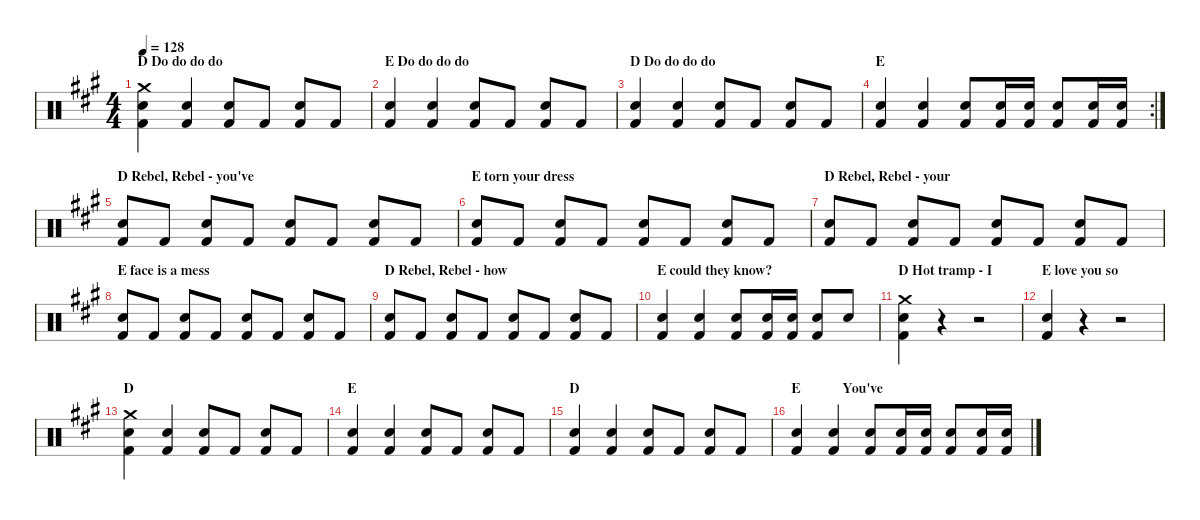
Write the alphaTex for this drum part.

\hideDynamics
\bracketExtendMode nobrackets
\singleTrackTrackNamePolicy hidden
\multiTrackTrackNamePolicy hidden
\firstSystemTrackNameMode fullname
\firstSystemTrackNameOrientation horizontal
\otherSystemsTrackNameOrientation horizontal
\track ("Drumkit" "Drums") {instrument percussion}
\staff {score}
\articulation defaults
\ts (4 4)
\section ("" "D Do do do do")
\tempo 128
\clef neutral
\ks a
("Crash medium (hit)"{acc forcenatural} "Snare (hit) 2"{acc forcenatural} "Kick (hit) 2"{acc forcenatural}).4{dy f beam Down} ("Snare (hit) 2"{acc forcenatural} "Kick (hit) 2"{acc forcenatural}).4{beam Up} ("Snare (hit) 2"{acc forcenatural} "Kick (hit) 2"{acc forcenatural}).8{beam Up} "Kick (hit) 2"{acc forcenatural}.8{beam Up} ("Snare (hit) 2"{acc forcenatural} "Kick (hit) 2"{acc forcenatural}).8{beam Up} "Kick (hit) 2"{acc forcenatural}.8{beam Up} |
\section ("" "E Do do do do")
("Snare (hit) 2"{acc forcenatural} "Kick (hit) 2"{acc forcenatural}).4{beam Up} ("Snare (hit) 2"{acc forcenatural} "Kick (hit) 2"{acc forcenatural}).4{beam Up} ("Snare (hit) 2"{acc forcenatural} "Kick (hit) 2"{acc forcenatural}).8{beam Up} "Kick (hit) 2"{acc forcenatural}.8{beam Up} ("Snare (hit) 2"{acc forcenatural} "Kick (hit) 2"{acc forcenatural}).8{beam Up} "Kick (hit) 2"{acc forcenatural}.8{beam Up} |
\section ("" "D Do do do do")
("Snare (hit) 2"{acc forcenatural} "Kick (hit) 2"{acc forcenatural}).4{beam Up} ("Snare (hit) 2"{acc forcenatural} "Kick (hit) 2"{acc forcenatural}).4{beam Up} ("Snare (hit) 2"{acc forcenatural} "Kick (hit) 2"{acc forcenatural}).8{beam Up} "Kick (hit) 2"{acc forcenatural}.8{beam Up} ("Snare (hit) 2"{acc forcenatural} "Kick (hit) 2"{acc forcenatural}).8{beam Up} "Kick (hit) 2"{acc forcenatural}.8{beam Up} |
\rc 2
\section ("" "E")
("Snare (hit) 2"{acc forcenatural} "Kick (hit) 2"{acc forcenatural}).4{beam Up} ("Snare (hit) 2"{acc forcenatural} "Kick (hit) 2"{acc forcenatural}).4{beam Up} ("Snare (hit) 2"{acc forcenatural} "Kick (hit) 2"{acc forcenatural}).8{beam Up} ("Snare (hit) 2"{acc forcenatural} "Kick (hit) 2"{acc forcenatural}).16{beam Up} ("Snare (hit) 2"{acc forcenatural} "Kick (hit) 2"{acc forcenatural}).16{beam Up} ("Snare (hit) 2"{acc forcenatural} "Kick (hit) 2"{acc forcenatural}).8{beam Up} ("Snare (hit) 2"{acc forcenatural} "Kick (hit) 2"{acc forcenatural}).16{beam Up} ("Snare (hit) 2"{acc forcenatural} "Kick (hit) 2"{acc forcenatural}).16{beam Up} |
\section ("" "D Rebel, Rebel - you've")
("Snare (hit) 2"{acc forcenatural} "Kick (hit) 2"{acc forcenatural}).8{beam Up} "Kick (hit) 2"{acc forcenatural}.8{beam Up} ("Snare (hit) 2"{acc forcenatural} "Kick (hit) 2"{acc forcenatural}).8{beam Up} "Kick (hit) 2"{acc forcenatural}.8{beam Up} ("Snare (hit) 2"{acc forcenatural} "Kick (hit) 2"{acc forcenatural}).8{beam Up} "Kick (hit) 2"{acc forcenatural}.8{beam Up} ("Snare (hit) 2"{acc forcenatural} "Kick (hit) 2"{acc forcenatural}).8{beam Up} "Kick (hit) 2"{acc forcenatural}.8{beam Up} |
\section ("" "E torn your dress")
("Snare (hit) 2"{acc forcenatural} "Kick (hit) 2"{acc forcenatural}).8{beam Up} "Kick (hit) 2"{acc forcenatural}.8{beam Up} ("Snare (hit) 2"{acc forcenatural} "Kick (hit) 2"{acc forcenatural}).8{beam Up} "Kick (hit) 2"{acc forcenatural}.8{beam Up} ("Snare (hit) 2"{acc forcenatural} "Kick (hit) 2"{acc forcenatural}).8{beam Up} "Kick (hit) 2"{acc forcenatural}.8{beam Up} ("Snare (hit) 2"{acc forcenatural} "Kick (hit) 2"{acc forcenatural}).8{beam Up} "Kick (hit) 2"{acc forcenatural}.8{beam Up} |
\section ("" "D Rebel, Rebel - your")
("Snare (hit) 2"{acc forcenatural} "Kick (hit) 2"{acc forcenatural}).8{beam Up} "Kick (hit) 2"{acc forcenatural}.8{beam Up} ("Snare (hit) 2"{acc forcenatural} "Kick (hit) 2"{acc forcenatural}).8{beam Up} "Kick (hit) 2"{acc forcenatural}.8{beam Up} ("Snare (hit) 2"{acc forcenatural} "Kick (hit) 2"{acc forcenatural}).8{beam Up} "Kick (hit) 2"{acc forcenatural}.8{beam Up} ("Snare (hit) 2"{acc forcenatural} "Kick (hit) 2"{acc forcenatural}).8{beam Up} "Kick (hit) 2"{acc forcenatural}.8{beam Up} |
\section ("" "E face is a mess")
("Snare (hit) 2"{acc forcenatural} "Kick (hit) 2"{acc forcenatural}).8{beam Up} "Kick (hit) 2"{acc forcenatural}.8{beam Up} ("Snare (hit) 2"{acc forcenatural} "Kick (hit) 2"{acc forcenatural}).8{beam Up} "Kick (hit) 2"{acc forcenatural}.8{beam Up} ("Snare (hit) 2"{acc forcenatural} "Kick (hit) 2"{acc forcenatural}).8{beam Up} "Kick (hit) 2"{acc forcenatural}.8{beam Up} ("Snare (hit) 2"{acc forcenatural} "Kick (hit) 2"{acc forcenatural}).8{beam Up} "Kick (hit) 2"{acc forcenatural}.8{beam Up} |
\section ("" "D Rebel, Rebel - how")
("Snare (hit) 2"{acc forcenatural} "Kick (hit) 2"{acc forcenatural}).8{beam Up} "Kick (hit) 2"{acc forcenatural}.8{beam Up} ("Snare (hit) 2"{acc forcenatural} "Kick (hit) 2"{acc forcenatural}).8{beam Up} "Kick (hit) 2"{acc forcenatural}.8{beam Up} ("Snare (hit) 2"{acc forcenatural} "Kick (hit) 2"{acc forcenatural}).8{beam Up} "Kick (hit) 2"{acc forcenatural}.8{beam Up} ("Snare (hit) 2"{acc forcenatural} "Kick (hit) 2"{acc forcenatural}).8{beam Up} "Kick (hit) 2"{acc forcenatural}.8{beam Up} |
\section ("" "E could they know?")
("Snare (hit) 2"{acc forcenatural} "Kick (hit) 2"{acc forcenatural}).4{beam Up} ("Snare (hit) 2"{acc forcenatural} "Kick (hit) 2"{acc forcenatural}).4{beam Up} ("Snare (hit) 2"{acc forcenatural} "Kick (hit) 2"{acc forcenatural}).8{beam Up} ("Snare (hit) 2"{acc forcenatural} "Kick (hit) 2"{acc forcenatural}).16{beam Up} ("Snare (hit) 2"{acc forcenatural} "Kick (hit) 2"{acc forcenatural}).16{beam Up} ("Snare (hit) 2"{acc forcenatural} "Kick (hit) 2"{acc forcenatural}).8{beam Up} "Snare (hit) 2"{acc forcenatural}.8{beam Up} |
\section ("" "D Hot tramp - I")
("Snare (hit) 2"{acc forcenatural} "Kick (hit) 2"{acc forcenatural} "Crash medium (hit)"{acc forcenatural}).4{beam Down} r.4{beam Down} r.2{beam Down} |
\section ("" "E love you so")
("Snare (hit) 2"{acc forcenatural} "Kick (hit) 2"{acc forcenatural}).4{beam Up} r.4{beam Up} r.2{beam Up} |
\section ("" "D")
("Crash medium (hit)"{acc forcenatural} "Snare (hit) 2"{acc forcenatural} "Kick (hit) 2"{acc forcenatural}).4{beam Down} ("Snare (hit) 2"{acc forcenatural} "Kick (hit) 2"{acc forcenatural}).4{beam Up} ("Snare (hit) 2"{acc forcenatural} "Kick (hit) 2"{acc forcenatural}).8{beam Up} "Kick (hit) 2"{acc forcenatural}.8{beam Up} ("Snare (hit) 2"{acc forcenatural} "Kick (hit) 2"{acc forcenatural}).8{beam Up} "Kick (hit) 2"{acc forcenatural}.8{beam Up} |
\section ("" "E")
("Snare (hit) 2"{acc forcenatural} "Kick (hit) 2"{acc forcenatural}).4{beam Up} ("Snare (hit) 2"{acc forcenatural} "Kick (hit) 2"{acc forcenatural}).4{beam Up} ("Snare (hit) 2"{acc forcenatural} "Kick (hit) 2"{acc forcenatural}).8{beam Up} "Kick (hit) 2"{acc forcenatural}.8{beam Up} ("Snare (hit) 2"{acc forcenatural} "Kick (hit) 2"{acc forcenatural}).8{beam Up} "Kick (hit) 2"{acc forcenatural}.8{beam Up} |
\section ("" "D")
("Snare (hit) 2"{acc forcenatural} "Kick (hit) 2"{acc forcenatural}).4{beam Up} ("Snare (hit) 2"{acc forcenatural} "Kick (hit) 2"{acc forcenatural}).4{beam Up} ("Snare (hit) 2"{acc forcenatural} "Kick (hit) 2"{acc forcenatural}).8{beam Up} "Kick (hit) 2"{acc forcenatural}.8{beam Up} ("Snare (hit) 2"{acc forcenatural} "Kick (hit) 2"{acc forcenatural}).8{beam Up} "Kick (hit) 2"{acc forcenatural}.8{beam Up} |
\section ("" "E            You've")
("Snare (hit) 2"{acc forcenatural} "Kick (hit) 2"{acc forcenatural}).4{beam Up} ("Snare (hit) 2"{acc forcenatural} "Kick (hit) 2"{acc forcenatural}).4{beam Up} ("Snare (hit) 2"{acc forcenatural} "Kick (hit) 2"{acc forcenatural}).8{beam Up} ("Snare (hit) 2"{acc forcenatural} "Kick (hit) 2"{acc forcenatural}).16{beam Up} ("Snare (hit) 2"{acc forcenatural} "Kick (hit) 2"{acc forcenatural}).16{beam Up} ("Snare (hit) 2"{acc forcenatural} "Kick (hit) 2"{acc forcenatural}).8{beam Up} ("Snare (hit) 2"{acc forcenatural} "Kick (hit) 2"{acc forcenatural}).16{beam Up} ("Snare (hit) 2"{acc forcenatural} "Kick (hit) 2"{acc forcenatural}).16{beam Up}
